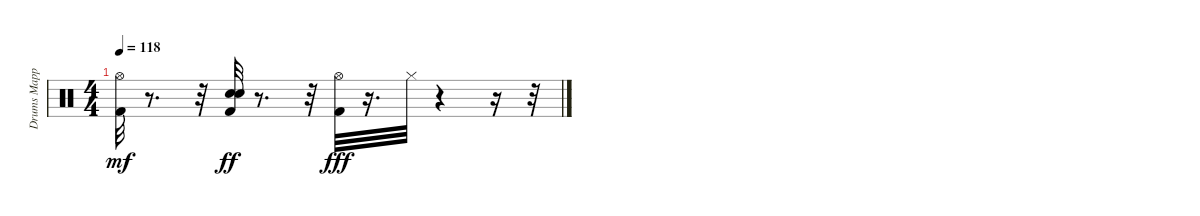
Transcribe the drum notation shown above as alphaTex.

\track ("Drums Mapped*merged" "Drums Mapp") {instrument percussion}
\staff {score}
\articulation defaults
\ts (4 4)
\tempo 118
\clef neutral
\ks c
("Kick (hit) 2" "Hi-Hat (open)").32{dy mf} r.8{d} r.32 ("Kick (hit) 2" "Snare (hit) 2" "Snare (hit) 2").32{dy ff} r.8{d} r.32 ("Kick (hit) 2" "Hi-Hat (open)").32{dy fff} r.16{d} "Hi-Hat (closed)".32 r.4 r.16 r.32
